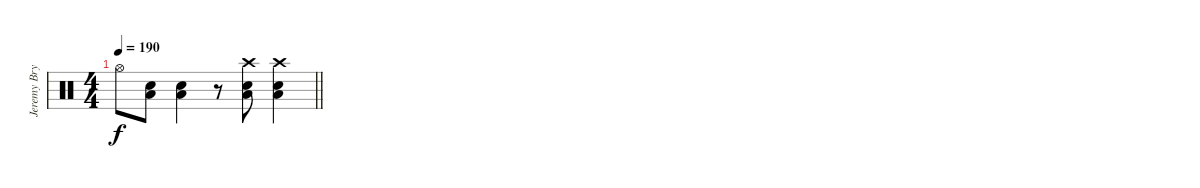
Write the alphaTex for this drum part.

\track ("Jeremy Bryan - Drums" "Jeremy Bry") {instrument percussion}
\staff {score}
\articulation defaults
\ts (4 4)
\tempo 190
\clef neutral
\barLineRight lightlight
\ks c "Hi-Hat (open)".8{dy f}
("Low Floor Tom (hit)" "Electric Snare (hit)").8 ("Low Floor Tom (hit)" "Electric Snare (hit)").4 r.8 ("Crash high (hit)" "Low Floor Tom (hit)" "Electric Snare (hit)").8 ("Crash high (hit)" "Low Floor Tom (hit)" "Electric Snare (hit)").4
